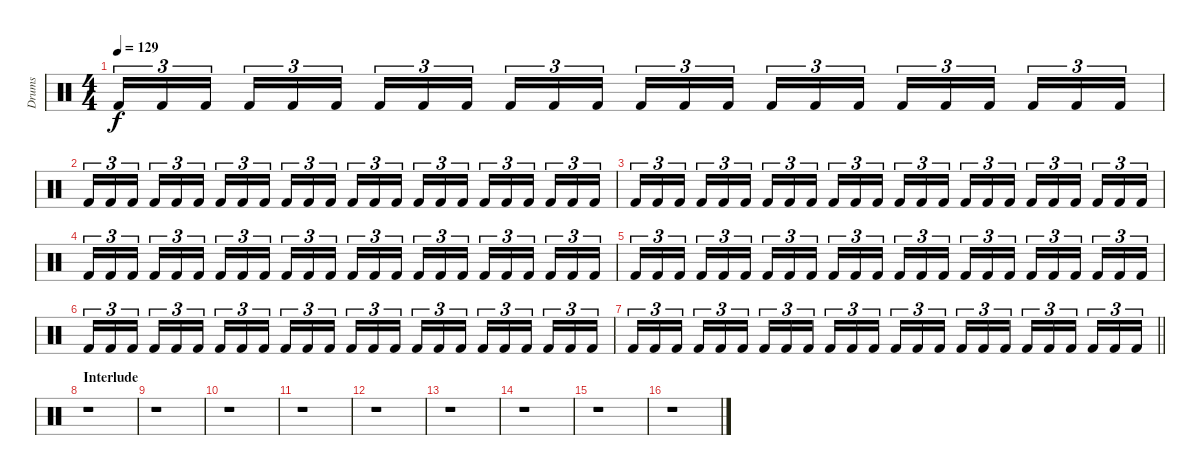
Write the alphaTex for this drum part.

\track ("Drums" "Drums") {instrument percussion}
\staff {score}
\articulation defaults
\ts (4 4)
\tempo 129
\clef neutral
\ks c "Kick (hit) 2".16{tu (3 2) dy f} "Kick (hit) 2".16{tu (3 2)} "Kick (hit) 2".16{tu (3 2) beam splitsecondary} "Kick (hit) 2".16{tu (3 2)} "Kick (hit) 2".16{tu (3 2)} "Kick (hit) 2".16{tu (3 2)} "Kick (hit) 2".16{tu (3 2)} "Kick (hit) 2".16{tu (3 2)} "Kick (hit) 2".16{tu (3 2) beam splitsecondary} "Kick (hit) 2".16{tu (3 2)} "Kick (hit) 2".16{tu (3 2)} "Kick (hit) 2".16{tu (3 2)} "Kick (hit) 2".16{tu (3 2)} "Kick (hit) 2".16{tu (3 2)} "Kick (hit) 2".16{tu (3 2) beam splitsecondary} "Kick (hit) 2".16{tu (3 2)} "Kick (hit) 2".16{tu (3 2)} "Kick (hit) 2".16{tu (3 2)} "Kick (hit) 2".16{tu (3 2)} "Kick (hit) 2".16{tu (3 2)} "Kick (hit) 2".16{tu (3 2) beam splitsecondary} "Kick (hit) 2".16{tu (3 2)} "Kick (hit) 2".16{tu (3 2)} "Kick (hit) 2".16{tu (3 2)}
|
"Kick (hit) 2".16{tu (3 2)} "Kick (hit) 2".16{tu (3 2)} "Kick (hit) 2".16{tu (3 2) beam splitsecondary} "Kick (hit) 2".16{tu (3 2)} "Kick (hit) 2".16{tu (3 2)} "Kick (hit) 2".16{tu (3 2)} "Kick (hit) 2".16{tu (3 2)} "Kick (hit) 2".16{tu (3 2)} "Kick (hit) 2".16{tu (3 2) beam splitsecondary} "Kick (hit) 2".16{tu (3 2)} "Kick (hit) 2".16{tu (3 2)} "Kick (hit) 2".16{tu (3 2)} "Kick (hit) 2".16{tu (3 2)} "Kick (hit) 2".16{tu (3 2)} "Kick (hit) 2".16{tu (3 2) beam splitsecondary} "Kick (hit) 2".16{tu (3 2)} "Kick (hit) 2".16{tu (3 2)} "Kick (hit) 2".16{tu (3 2)} "Kick (hit) 2".16{tu (3 2)} "Kick (hit) 2".16{tu (3 2)} "Kick (hit) 2".16{tu (3 2) beam splitsecondary} "Kick (hit) 2".16{tu (3 2)} "Kick (hit) 2".16{tu (3 2)} "Kick (hit) 2".16{tu (3 2)} |
"Kick (hit) 2".16{tu (3 2)} "Kick (hit) 2".16{tu (3 2)} "Kick (hit) 2".16{tu (3 2) beam splitsecondary} "Kick (hit) 2".16{tu (3 2)} "Kick (hit) 2".16{tu (3 2)} "Kick (hit) 2".16{tu (3 2)} "Kick (hit) 2".16{tu (3 2)} "Kick (hit) 2".16{tu (3 2)} "Kick (hit) 2".16{tu (3 2) beam splitsecondary} "Kick (hit) 2".16{tu (3 2)} "Kick (hit) 2".16{tu (3 2)} "Kick (hit) 2".16{tu (3 2)} "Kick (hit) 2".16{tu (3 2)} "Kick (hit) 2".16{tu (3 2)} "Kick (hit) 2".16{tu (3 2) beam splitsecondary} "Kick (hit) 2".16{tu (3 2)} "Kick (hit) 2".16{tu (3 2)} "Kick (hit) 2".16{tu (3 2)} "Kick (hit) 2".16{tu (3 2)} "Kick (hit) 2".16{tu (3 2)} "Kick (hit) 2".16{tu (3 2) beam splitsecondary} "Kick (hit) 2".16{tu (3 2)} "Kick (hit) 2".16{tu (3 2)} "Kick (hit) 2".16{tu (3 2)} |
"Kick (hit) 2".16{tu (3 2)} "Kick (hit) 2".16{tu (3 2)} "Kick (hit) 2".16{tu (3 2) beam splitsecondary} "Kick (hit) 2".16{tu (3 2)} "Kick (hit) 2".16{tu (3 2)} "Kick (hit) 2".16{tu (3 2)} "Kick (hit) 2".16{tu (3 2)} "Kick (hit) 2".16{tu (3 2)} "Kick (hit) 2".16{tu (3 2) beam splitsecondary} "Kick (hit) 2".16{tu (3 2)} "Kick (hit) 2".16{tu (3 2)} "Kick (hit) 2".16{tu (3 2)} "Kick (hit) 2".16{tu (3 2)} "Kick (hit) 2".16{tu (3 2)} "Kick (hit) 2".16{tu (3 2) beam splitsecondary} "Kick (hit) 2".16{tu (3 2)} "Kick (hit) 2".16{tu (3 2)} "Kick (hit) 2".16{tu (3 2)} "Kick (hit) 2".16{tu (3 2)} "Kick (hit) 2".16{tu (3 2)} "Kick (hit) 2".16{tu (3 2) beam splitsecondary} "Kick (hit) 2".16{tu (3 2)} "Kick (hit) 2".16{tu (3 2)} "Kick (hit) 2".16{tu (3 2)} |
"Kick (hit) 2".16{tu (3 2)} "Kick (hit) 2".16{tu (3 2)} "Kick (hit) 2".16{tu (3 2) beam splitsecondary} "Kick (hit) 2".16{tu (3 2)} "Kick (hit) 2".16{tu (3 2)} "Kick (hit) 2".16{tu (3 2)} "Kick (hit) 2".16{tu (3 2)} "Kick (hit) 2".16{tu (3 2)} "Kick (hit) 2".16{tu (3 2) beam splitsecondary} "Kick (hit) 2".16{tu (3 2)} "Kick (hit) 2".16{tu (3 2)} "Kick (hit) 2".16{tu (3 2)} "Kick (hit) 2".16{tu (3 2)} "Kick (hit) 2".16{tu (3 2)} "Kick (hit) 2".16{tu (3 2) beam splitsecondary} "Kick (hit) 2".16{tu (3 2)} "Kick (hit) 2".16{tu (3 2)} "Kick (hit) 2".16{tu (3 2)} "Kick (hit) 2".16{tu (3 2)} "Kick (hit) 2".16{tu (3 2)} "Kick (hit) 2".16{tu (3 2) beam splitsecondary} "Kick (hit) 2".16{tu (3 2)} "Kick (hit) 2".16{tu (3 2)} "Kick (hit) 2".16{tu (3 2)} |
"Kick (hit) 2".16{tu (3 2)} "Kick (hit) 2".16{tu (3 2)} "Kick (hit) 2".16{tu (3 2) beam splitsecondary} "Kick (hit) 2".16{tu (3 2)} "Kick (hit) 2".16{tu (3 2)} "Kick (hit) 2".16{tu (3 2)} "Kick (hit) 2".16{tu (3 2)} "Kick (hit) 2".16{tu (3 2)} "Kick (hit) 2".16{tu (3 2) beam splitsecondary} "Kick (hit) 2".16{tu (3 2)} "Kick (hit) 2".16{tu (3 2)} "Kick (hit) 2".16{tu (3 2)} "Kick (hit) 2".16{tu (3 2)} "Kick (hit) 2".16{tu (3 2)} "Kick (hit) 2".16{tu (3 2) beam splitsecondary} "Kick (hit) 2".16{tu (3 2)} "Kick (hit) 2".16{tu (3 2)} "Kick (hit) 2".16{tu (3 2)} "Kick (hit) 2".16{tu (3 2)} "Kick (hit) 2".16{tu (3 2)} "Kick (hit) 2".16{tu (3 2) beam splitsecondary} "Kick (hit) 2".16{tu (3 2)} "Kick (hit) 2".16{tu (3 2)} "Kick (hit) 2".16{tu (3 2)} |
\barLineRight lightlight "Kick (hit) 2".16{tu (3 2)} "Kick (hit) 2".16{tu (3 2)} "Kick (hit) 2".16{tu (3 2) beam splitsecondary} "Kick (hit) 2".16{tu (3 2)} "Kick (hit) 2".16{tu (3 2)} "Kick (hit) 2".16{tu (3 2)} "Kick (hit) 2".16{tu (3 2)} "Kick (hit) 2".16{tu (3 2)} "Kick (hit) 2".16{tu (3 2) beam splitsecondary} "Kick (hit) 2".16{tu (3 2)} "Kick (hit) 2".16{tu (3 2)} "Kick (hit) 2".16{tu (3 2)} "Kick (hit) 2".16{tu (3 2)} "Kick (hit) 2".16{tu (3 2)} "Kick (hit) 2".16{tu (3 2) beam splitsecondary} "Kick (hit) 2".16{tu (3 2)} "Kick (hit) 2".16{tu (3 2)} "Kick (hit) 2".16{tu (3 2)} "Kick (hit) 2".16{tu (3 2)} "Kick (hit) 2".16{tu (3 2)} "Kick (hit) 2".16{tu (3 2) beam splitsecondary} "Kick (hit) 2".16{tu (3 2)} "Kick (hit) 2".16{tu (3 2)} "Kick (hit) 2".16{tu (3 2)}
|
\section ("" "Interlude ")
r.1 |
r.1 |
r.1 |
r.1 |
r.1 |
r.1 |
r.1 |
r.1 |
r.1
